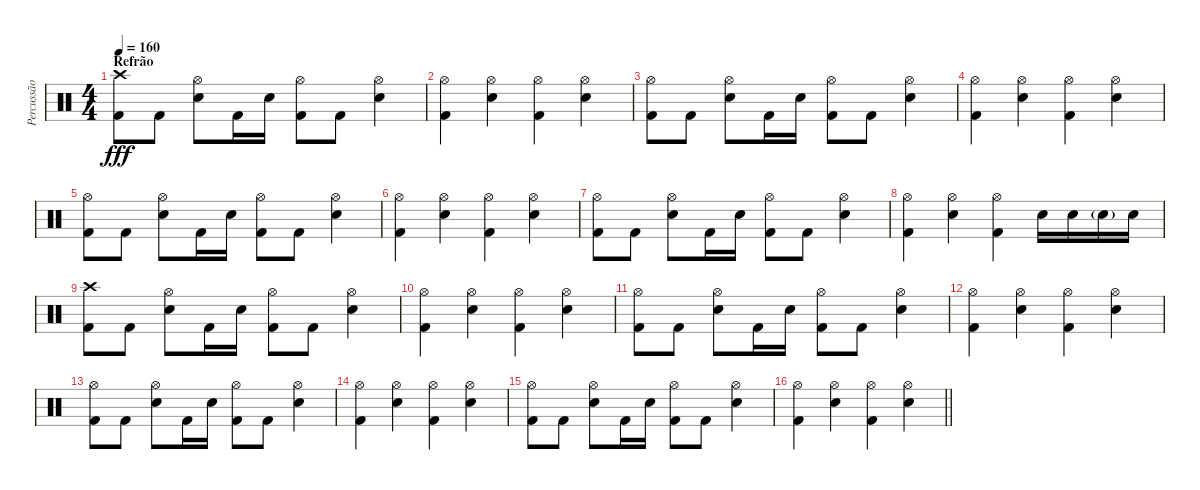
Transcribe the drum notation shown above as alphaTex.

\track ("Percussão" "Percussão") {instrument percussion}
\staff {score}
\articulation defaults
\ts (4 4)
\section ("" "Refrão")
\tempo 160
\clef neutral
\ks c
("Crash high (hit)" "Kick (hit) 2").8{dy fff} "Kick (hit) 2".8 ("Hi-Hat (open)" "Electric Snare (hit)").8 "Kick (hit) 2".16 "Electric Snare (hit)".16 ("Hi-Hat (open)" "Kick (hit) 2").8 "Kick (hit) 2".8 ("Hi-Hat (open)" "Electric Snare (hit)").4 |
("Hi-Hat (open)" "Kick (hit) 2").4 ("Hi-Hat (open)" "Electric Snare (hit)").4 ("Hi-Hat (open)" "Kick (hit) 2").4 ("Hi-Hat (open)" "Electric Snare (hit)").4 |
("Hi-Hat (open)" "Kick (hit) 2").8 "Kick (hit) 2".8 ("Hi-Hat (open)" "Electric Snare (hit)").8 "Kick (hit) 2".16 "Electric Snare (hit)".16 ("Hi-Hat (open)" "Kick (hit) 2").8 "Kick (hit) 2".8 ("Hi-Hat (open)" "Electric Snare (hit)").4 |
("Hi-Hat (open)" "Kick (hit) 2").4 ("Hi-Hat (open)" "Electric Snare (hit)").4 ("Hi-Hat (open)" "Kick (hit) 2").4 ("Hi-Hat (open)" "Electric Snare (hit)").4 |
("Hi-Hat (open)" "Kick (hit) 2").8 "Kick (hit) 2".8 ("Hi-Hat (open)" "Electric Snare (hit)").8 "Kick (hit) 2".16 "Electric Snare (hit)".16 ("Hi-Hat (open)" "Kick (hit) 2").8 "Kick (hit) 2".8 ("Hi-Hat (open)" "Electric Snare (hit)").4 |
("Hi-Hat (open)" "Kick (hit) 2").4 ("Hi-Hat (open)" "Electric Snare (hit)").4 ("Hi-Hat (open)" "Kick (hit) 2").4 ("Hi-Hat (open)" "Electric Snare (hit)").4 |
("Hi-Hat (open)" "Kick (hit) 2").8 "Kick (hit) 2".8 ("Hi-Hat (open)" "Electric Snare (hit)").8 "Kick (hit) 2".16 "Electric Snare (hit)".16 ("Hi-Hat (open)" "Kick (hit) 2").8 "Kick (hit) 2".8 ("Hi-Hat (open)" "Electric Snare (hit)").4 |
("Hi-Hat (open)" "Kick (hit) 2").4 ("Hi-Hat (open)" "Electric Snare (hit)").4 ("Hi-Hat (open)" "Kick (hit) 2").4 "Electric Snare (hit)".16 "Electric Snare (hit)".16 "Electric Snare (hit)"{g}.16 "Electric Snare (hit)".16 |
("Crash high (hit)" "Kick (hit) 2").8 "Kick (hit) 2".8 ("Hi-Hat (open)" "Electric Snare (hit)").8 "Kick (hit) 2".16 "Electric Snare (hit)".16 ("Hi-Hat (open)" "Kick (hit) 2").8 "Kick (hit) 2".8 ("Hi-Hat (open)" "Electric Snare (hit)").4 |
("Hi-Hat (open)" "Kick (hit) 2").4 ("Hi-Hat (open)" "Electric Snare (hit)").4 ("Hi-Hat (open)" "Kick (hit) 2").4 ("Hi-Hat (open)" "Electric Snare (hit)").4 |
("Hi-Hat (open)" "Kick (hit) 2").8 "Kick (hit) 2".8 ("Hi-Hat (open)" "Electric Snare (hit)").8 "Kick (hit) 2".16 "Electric Snare (hit)".16 ("Hi-Hat (open)" "Kick (hit) 2").8 "Kick (hit) 2".8 ("Hi-Hat (open)" "Electric Snare (hit)").4 |
("Hi-Hat (open)" "Kick (hit) 2").4 ("Hi-Hat (open)" "Electric Snare (hit)").4 ("Hi-Hat (open)" "Kick (hit) 2").4 ("Hi-Hat (open)" "Electric Snare (hit)").4 |
("Hi-Hat (open)" "Kick (hit) 2").8 "Kick (hit) 2".8 ("Hi-Hat (open)" "Electric Snare (hit)").8 "Kick (hit) 2".16 "Electric Snare (hit)".16 ("Hi-Hat (open)" "Kick (hit) 2").8 "Kick (hit) 2".8 ("Hi-Hat (open)" "Electric Snare (hit)").4 |
("Hi-Hat (open)" "Kick (hit) 2").4 ("Hi-Hat (open)" "Electric Snare (hit)").4 ("Hi-Hat (open)" "Kick (hit) 2").4 ("Hi-Hat (open)" "Electric Snare (hit)").4 |
("Hi-Hat (open)" "Kick (hit) 2").8 "Kick (hit) 2".8 ("Hi-Hat (open)" "Electric Snare (hit)").8 "Kick (hit) 2".16 "Electric Snare (hit)".16 ("Hi-Hat (open)" "Kick (hit) 2").8 "Kick (hit) 2".8 ("Hi-Hat (open)" "Electric Snare (hit)").4 |
\barLineRight lightlight
("Hi-Hat (open)" "Kick (hit) 2").4 ("Hi-Hat (open)" "Electric Snare (hit)").4 ("Hi-Hat (open)" "Kick (hit) 2").4 ("Hi-Hat (open)" "Electric Snare (hit)").4
